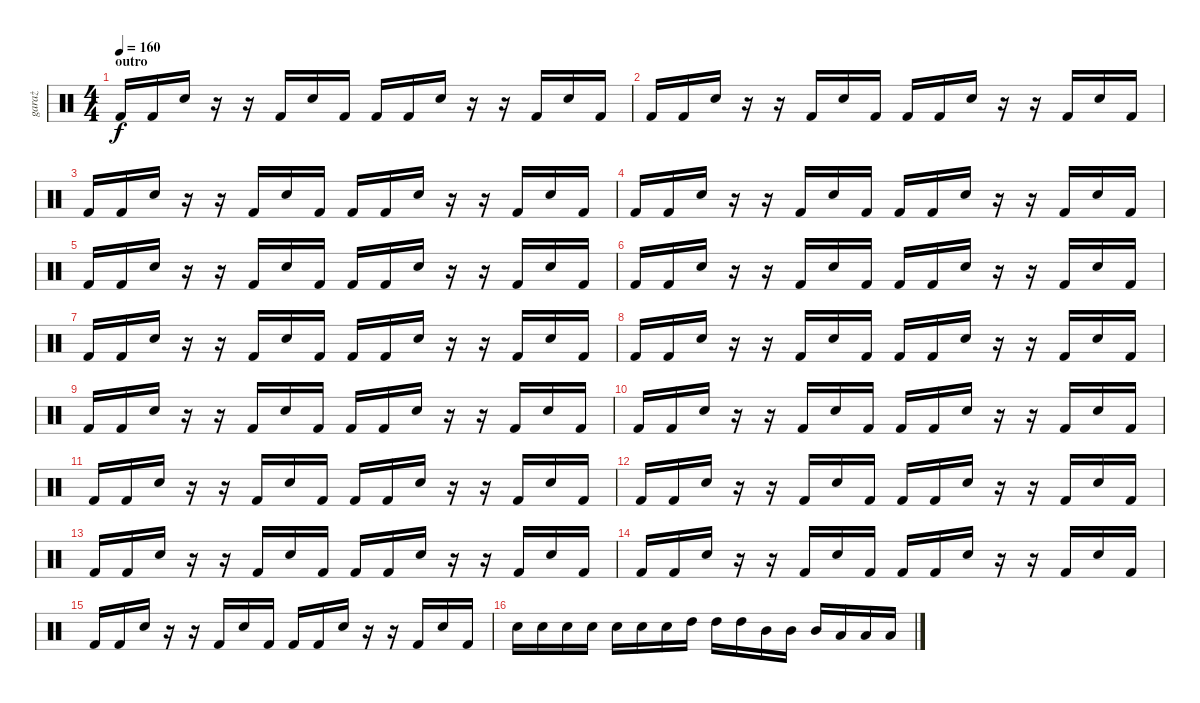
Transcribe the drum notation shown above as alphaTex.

\track ("garaż" "garaż") {instrument percussion}
\staff {score}
\articulation defaults
\ts (4 4)
\section ("" "outro")
\tempo 160
\clef neutral
\ks c "Kick (hit) 2".16{dy f} "Kick (hit) 2".16 "Snare (hit) 2".16
r.16 r.16 "Kick (hit) 2".16 "Snare (hit) 2".16 "Kick (hit) 2".16 "Kick (hit) 2".16 "Kick (hit) 2".16 "Snare (hit) 2".16 r.16 r.16 "Kick (hit) 2".16 "Snare (hit) 2".16 "Kick (hit) 2".16 |
"Kick (hit) 2".16 "Kick (hit) 2".16 "Snare (hit) 2".16 r.16 r.16 "Kick (hit) 2".16 "Snare (hit) 2".16 "Kick (hit) 2".16 "Kick (hit) 2".16 "Kick (hit) 2".16 "Snare (hit) 2".16 r.16 r.16 "Kick (hit) 2".16 "Snare (hit) 2".16 "Kick (hit) 2".16 |
"Kick (hit) 2".16 "Kick (hit) 2".16 "Snare (hit) 2".16 r.16 r.16 "Kick (hit) 2".16 "Snare (hit) 2".16 "Kick (hit) 2".16 "Kick (hit) 2".16 "Kick (hit) 2".16 "Snare (hit) 2".16 r.16 r.16 "Kick (hit) 2".16 "Snare (hit) 2".16 "Kick (hit) 2".16 |
"Kick (hit) 2".16 "Kick (hit) 2".16 "Snare (hit) 2".16 r.16 r.16 "Kick (hit) 2".16 "Snare (hit) 2".16 "Kick (hit) 2".16 "Kick (hit) 2".16 "Kick (hit) 2".16 "Snare (hit) 2".16 r.16 r.16 "Kick (hit) 2".16 "Snare (hit) 2".16 "Kick (hit) 2".16 |
"Kick (hit) 2".16 "Kick (hit) 2".16 "Snare (hit) 2".16 r.16 r.16 "Kick (hit) 2".16 "Snare (hit) 2".16 "Kick (hit) 2".16 "Kick (hit) 2".16 "Kick (hit) 2".16 "Snare (hit) 2".16 r.16 r.16 "Kick (hit) 2".16 "Snare (hit) 2".16 "Kick (hit) 2".16 |
"Kick (hit) 2".16 "Kick (hit) 2".16 "Snare (hit) 2".16 r.16 r.16 "Kick (hit) 2".16 "Snare (hit) 2".16 "Kick (hit) 2".16 "Kick (hit) 2".16 "Kick (hit) 2".16 "Snare (hit) 2".16 r.16 r.16 "Kick (hit) 2".16 "Snare (hit) 2".16 "Kick (hit) 2".16 |
"Kick (hit) 2".16 "Kick (hit) 2".16 "Snare (hit) 2".16 r.16 r.16 "Kick (hit) 2".16 "Snare (hit) 2".16 "Kick (hit) 2".16 "Kick (hit) 2".16 "Kick (hit) 2".16 "Snare (hit) 2".16 r.16 r.16 "Kick (hit) 2".16 "Snare (hit) 2".16 "Kick (hit) 2".16 |
"Kick (hit) 2".16 "Kick (hit) 2".16 "Snare (hit) 2".16 r.16 r.16 "Kick (hit) 2".16 "Snare (hit) 2".16 "Kick (hit) 2".16 "Kick (hit) 2".16 "Kick (hit) 2".16 "Snare (hit) 2".16 r.16 r.16 "Kick (hit) 2".16 "Snare (hit) 2".16 "Kick (hit) 2".16 |
"Kick (hit) 2".16 "Kick (hit) 2".16 "Snare (hit) 2".16 r.16 r.16 "Kick (hit) 2".16 "Snare (hit) 2".16 "Kick (hit) 2".16 "Kick (hit) 2".16 "Kick (hit) 2".16 "Snare (hit) 2".16 r.16 r.16 "Kick (hit) 2".16 "Snare (hit) 2".16 "Kick (hit) 2".16 |
"Kick (hit) 2".16 "Kick (hit) 2".16 "Snare (hit) 2".16 r.16 r.16 "Kick (hit) 2".16 "Snare (hit) 2".16 "Kick (hit) 2".16 "Kick (hit) 2".16 "Kick (hit) 2".16 "Snare (hit) 2".16 r.16 r.16 "Kick (hit) 2".16 "Snare (hit) 2".16 "Kick (hit) 2".16 |
"Kick (hit) 2".16 "Kick (hit) 2".16 "Snare (hit) 2".16 r.16 r.16 "Kick (hit) 2".16 "Snare (hit) 2".16 "Kick (hit) 2".16 "Kick (hit) 2".16 "Kick (hit) 2".16 "Snare (hit) 2".16 r.16 r.16 "Kick (hit) 2".16 "Snare (hit) 2".16 "Kick (hit) 2".16 |
"Kick (hit) 2".16 "Kick (hit) 2".16 "Snare (hit) 2".16 r.16 r.16 "Kick (hit) 2".16 "Snare (hit) 2".16 "Kick (hit) 2".16 "Kick (hit) 2".16 "Kick (hit) 2".16 "Snare (hit) 2".16 r.16 r.16 "Kick (hit) 2".16 "Snare (hit) 2".16 "Kick (hit) 2".16 |
"Kick (hit) 2".16 "Kick (hit) 2".16 "Snare (hit) 2".16 r.16 r.16 "Kick (hit) 2".16 "Snare (hit) 2".16 "Kick (hit) 2".16 "Kick (hit) 2".16 "Kick (hit) 2".16 "Snare (hit) 2".16 r.16 r.16 "Kick (hit) 2".16 "Snare (hit) 2".16 "Kick (hit) 2".16 |
"Kick (hit) 2".16 "Kick (hit) 2".16 "Snare (hit) 2".16 r.16 r.16 "Kick (hit) 2".16 "Snare (hit) 2".16 "Kick (hit) 2".16 "Kick (hit) 2".16 "Kick (hit) 2".16 "Snare (hit) 2".16 r.16 r.16 "Kick (hit) 2".16 "Snare (hit) 2".16 "Kick (hit) 2".16 |
"Kick (hit) 2".16 "Kick (hit) 2".16 "Snare (hit) 2".16 r.16 r.16 "Kick (hit) 2".16 "Snare (hit) 2".16 "Kick (hit) 2".16 "Kick (hit) 2".16 "Kick (hit) 2".16 "Snare (hit) 2".16 r.16 r.16 "Kick (hit) 2".16 "Snare (hit) 2".16 "Kick (hit) 2".16 |
"Snare (hit) 2".16 "Snare (hit) 2".16 "Snare (hit) 2".16 "Snare (hit) 2".16 "Snare (hit) 2".16 "Snare (hit) 2".16 "Snare (hit) 2".16 "High Tom (hit)".16 "High Tom (hit)".16 "High Tom (hit)".16 "Mid Tom (hit)".16 "Mid Tom (hit)".16 "Mid Tom (hit)".16 "Low Tom (hit)".16 "Low Tom (hit)".16 "Low Tom (hit)".16
